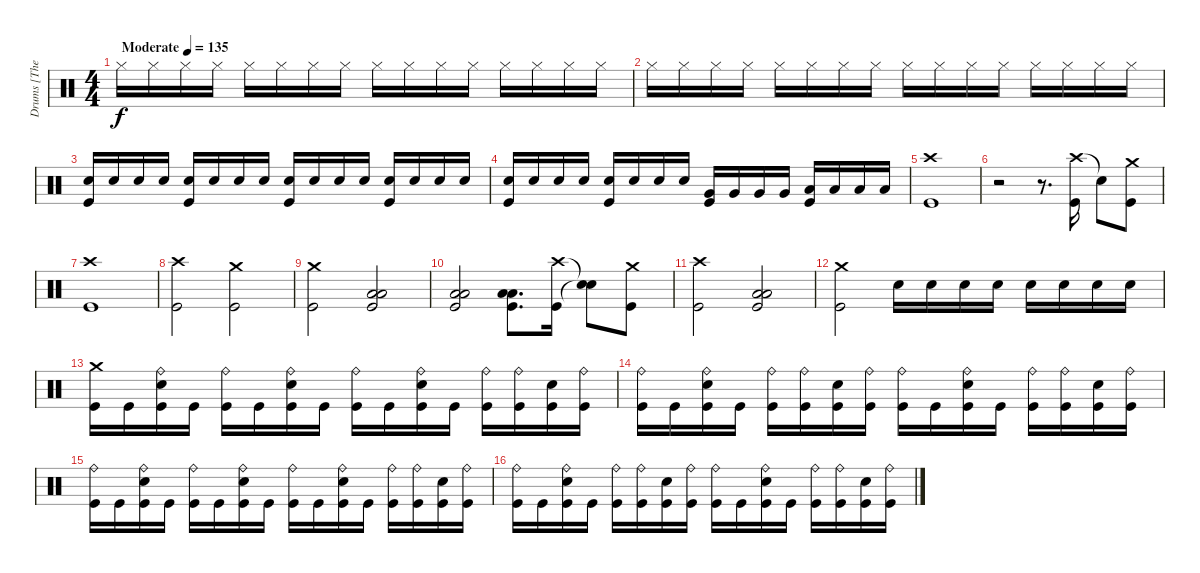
\track ("Drums [The Rev]" "Drums [The") {instrument percussion}
\staff {score}
\articulation defaults
\ts (4 4)
\tempo (135 "Moderate")
\clef neutral
\ks c "Hi-Hat (closed)".16{dy f} "Hi-Hat (closed)".16 "Hi-Hat (closed)".16 "Hi-Hat (closed)".16 "Hi-Hat (closed)".16 "Hi-Hat (closed)".16 "Hi-Hat (closed)".16 "Hi-Hat (closed)".16 "Hi-Hat (closed)".16 "Hi-Hat (closed)".16 "Hi-Hat (closed)".16 "Hi-Hat (closed)".16 "Hi-Hat (closed)".16 "Hi-Hat (closed)".16 "Hi-Hat (closed)".16 "Hi-Hat (closed)".16
|
"Hi-Hat (closed)".16 "Hi-Hat (closed)".16 "Hi-Hat (closed)".16 "Hi-Hat (closed)".16 "Hi-Hat (closed)".16 "Hi-Hat (closed)".16 "Hi-Hat (closed)".16 "Hi-Hat (closed)".16 "Hi-Hat (closed)".16 "Hi-Hat (closed)".16 "Hi-Hat (closed)".16 "Hi-Hat (closed)".16 "Hi-Hat (closed)".16 "Hi-Hat (closed)".16 "Hi-Hat (closed)".16 "Hi-Hat (closed)".16 |
("Snare (hit) 2" "Kick (hit)").16 "Snare (hit) 2".16 "Snare (hit) 2".16 "Snare (hit) 2".16 ("Snare (hit) 2" "Kick (hit)").16 "Snare (hit) 2".16 "Snare (hit) 2".16 "Snare (hit) 2".16 ("Snare (hit) 2" "Kick (hit)").16 "Snare (hit) 2".16 "Snare (hit) 2".16 "Snare (hit) 2".16 ("Snare (hit) 2" "Kick (hit)").16 "Snare (hit) 2".16 "Snare (hit) 2".16 "Snare (hit) 2".16 |
("Snare (hit) 2" "Kick (hit)").16 "Snare (hit) 2".16 "Snare (hit) 2".16 "Snare (hit) 2".16 ("Snare (hit) 2" "Kick (hit)").16 "Snare (hit) 2".16 "Snare (hit) 2".16 "Snare (hit) 2".16 ("Very Low Tom (hit)" "Kick (hit)").16 "Very Low Tom (hit)".16 "Very Low Tom (hit)".16 "Very Low Tom (hit)".16 ("Low Floor Tom (hit)" "Kick (hit)").16 "Low Floor Tom (hit)".16 "Low Floor Tom (hit)".16 "Low Floor Tom (hit)".16 |
("Crash high (hit)" "Kick (hit)").1 |
r.2 r.8{d} ("Crash high (hit)" "Kick (hit)").16 "Snare (hit)"{t}.8 ("Crash medium (hit)" "Kick (hit)").8 |
("Crash high (hit)" "Kick (hit)").1 |
("Crash high (hit)" "Kick (hit)").2 ("Crash medium (hit)" "Kick (hit)").2 |
("Crash medium (hit)" "Kick (hit)").2 ("Low Floor Tom (hit)" "Low Floor Tom (hit)" "Kick (hit)").2 |
("Low Floor Tom (hit)" "Low Floor Tom (hit)" "Kick (hit)").2 ("Low Floor Tom (hit)" "Low Floor Tom (hit)" "Kick (hit)").8{d} ("Crash high (hit)" "Kick (hit)").16 ("Snare (hit)"{t} "Snare (hit)"{t}).8 ("Crash medium (hit)" "Kick (hit)").8 |
("Crash high (hit)" "Kick (hit)").2 ("Low Floor Tom (hit)" "Low Floor Tom (hit)" "Kick (hit)").2 |
("Crash medium (hit)" "Kick (hit)").2 "Snare (hit) 2".16 "Snare (hit) 2".16 "Snare (hit) 2".16 "Snare (hit) 2".16 "Snare (hit) 2".16 "Snare (hit) 2".16 "Snare (hit) 2".16 "Snare (hit) 2".16 |
("Crash medium (hit)" "Kick (hit)").16 "Kick (hit)".16 ("Ride (bell)" "Snare (hit) 2" "Kick (hit)").16 "Kick (hit)".16 ("Ride (bell)" "Kick (hit)").16 "Kick (hit)".16 ("Ride (bell)" "Snare (hit) 2" "Kick (hit)").16 "Kick (hit)".16 ("Ride (bell)" "Kick (hit)").16 "Kick (hit)".16 ("Ride (bell)" "Snare (hit) 2" "Kick (hit)").16 "Kick (hit)".16 ("Ride (bell)" "Kick (hit)").16 ("Ride (bell)" "Kick (hit)").16 ("Snare (hit) 2" "Kick (hit)").16 ("Ride (bell)" "Kick (hit)").16 |
("Ride (bell)" "Kick (hit)").16 "Kick (hit)".16 ("Ride (bell)" "Snare (hit) 2" "Kick (hit)").16 "Kick (hit)".16 ("Ride (bell)" "Kick (hit)").16 ("Ride (bell)" "Kick (hit)").16 ("Snare (hit) 2" "Kick (hit)").16 ("Ride (bell)" "Kick (hit)").16 ("Ride (bell)" "Kick (hit)").16 "Kick (hit)".16 ("Ride (bell)" "Snare (hit) 2" "Kick (hit)").16 "Kick (hit)".16 ("Ride (bell)" "Kick (hit)").16 ("Ride (bell)" "Kick (hit)").16 ("Snare (hit) 2" "Kick (hit)").16 ("Ride (bell)" "Kick (hit)").16 |
("Ride (bell)" "Kick (hit)").16 "Kick (hit)".16 ("Ride (bell)" "Snare (hit) 2" "Kick (hit)").16 "Kick (hit)".16 ("Ride (bell)" "Kick (hit)").16 "Kick (hit)".16 ("Ride (bell)" "Snare (hit) 2" "Kick (hit)").16 "Kick (hit)".16 ("Ride (bell)" "Kick (hit)").16 "Kick (hit)".16 ("Ride (bell)" "Snare (hit) 2" "Kick (hit)").16 "Kick (hit)".16 ("Ride (bell)" "Kick (hit)").16 ("Ride (bell)" "Kick (hit)").16 ("Snare (hit) 2" "Kick (hit)").16 ("Ride (bell)" "Kick (hit)").16 |
("Ride (bell)" "Kick (hit)").16 "Kick (hit)".16 ("Ride (bell)" "Snare (hit) 2" "Kick (hit)").16 "Kick (hit)".16 ("Ride (bell)" "Kick (hit)").16 ("Ride (bell)" "Kick (hit)").16 ("Snare (hit) 2" "Kick (hit)").16 ("Ride (bell)" "Kick (hit)").16 ("Ride (bell)" "Kick (hit)").16 "Kick (hit)".16 ("Ride (bell)" "Snare (hit) 2" "Kick (hit)").16 "Kick (hit)".16 ("Ride (bell)" "Kick (hit)").16 ("Ride (bell)" "Kick (hit)").16 ("Snare (hit) 2" "Kick (hit)").16 ("Ride (bell)" "Kick (hit)").16
